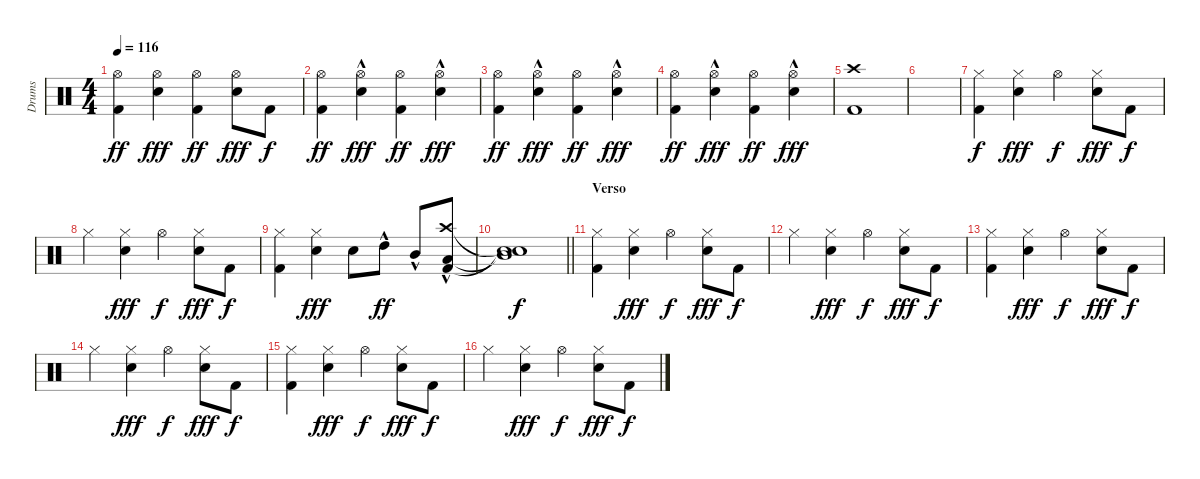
\track ("Drums" "Drums") {instrument percussion}
\staff {score}
\articulation defaults
\ts (4 4)
\tempo 116
\clef neutral
\ks c
("Hi-Hat (open)" "Kick (hit) 2").4{dy ff} ("Hi-Hat (open)" "Snare (hit) 2").4{dy fff} ("Hi-Hat (open)" "Kick (hit) 2").4{dy ff} ("Hi-Hat (open)" "Snare (hit) 2").8{dy fff} "Kick (hit) 2".8{dy f} |
("Hi-Hat (open)" "Kick (hit) 2").4{dy ff} ("Hi-Hat (open)" "Snare (hit) 2"{hac}).4{dy fff} ("Hi-Hat (open)" "Kick (hit) 2").4{dy ff} ("Hi-Hat (open)" "Snare (hit) 2"{hac}).4{dy fff} |
("Hi-Hat (open)" "Kick (hit) 2").4{dy ff} ("Hi-Hat (open)" "Snare (hit) 2"{hac}).4{dy fff} ("Hi-Hat (open)" "Kick (hit) 2").4{dy ff} ("Hi-Hat (open)" "Snare (hit) 2"{hac}).4{dy fff} |
("Hi-Hat (open)" "Kick (hit) 2").4{dy ff} ("Hi-Hat (open)" "Snare (hit) 2"{hac}).4{dy fff} ("Hi-Hat (open)" "Kick (hit) 2").4{dy ff} ("Hi-Hat (open)" "Snare (hit) 2"{hac}).4{dy fff} |
("Crash high (hit)" "Kick (hit) 2").1 |
|
("Hi-Hat (closed)" "Kick (hit) 2").4{dy f} ("Hi-Hat (closed)" "Snare (hit) 2").4{dy fff} "Hi-Hat (open)".4{dy f} ("Hi-Hat (closed)" "Snare (hit) 2").8{dy fff} "Kick (hit) 2".8{dy f} |
"Hi-Hat (closed)".4 ("Hi-Hat (closed)" "Snare (hit) 2").4{dy fff} "Hi-Hat (open)".4{dy f} ("Hi-Hat (closed)" "Snare (hit) 2").8{dy fff} "Kick (hit) 2".8{dy f} |
("Hi-Hat (closed)" "Kick (hit) 2").4 ("Hi-Hat (closed)" "Snare (hit) 2").4{dy fff} "Snare (hit) 2".8 "High Tom (hit)"{hac}.8{dy ff} "Mid Tom (hit)"{hac}.8 ("Crash high (hit)" "Low Tom (hit)" "Kick (hit) 2"{hac}).8 |
\barLineRight lightlight
("Snare (hit)"{t} "Mid Tom (hit)"{t} "Snare (hit)"{t}).1{dy f} |
\section ("" "Verso")
("Hi-Hat (closed)" "Kick (hit) 2").4 ("Hi-Hat (closed)" "Snare (hit) 2").4{dy fff} "Hi-Hat (open)".4{dy f} ("Hi-Hat (closed)" "Snare (hit) 2").8{dy fff} "Kick (hit) 2".8{dy f} |
"Hi-Hat (closed)".4 ("Hi-Hat (closed)" "Snare (hit) 2").4{dy fff} "Hi-Hat (open)".4{dy f} ("Hi-Hat (closed)" "Snare (hit) 2").8{dy fff} "Kick (hit) 2".8{dy f} |
("Hi-Hat (closed)" "Kick (hit) 2").4 ("Hi-Hat (closed)" "Snare (hit) 2").4{dy fff} "Hi-Hat (open)".4{dy f} ("Hi-Hat (closed)" "Snare (hit) 2").8{dy fff} "Kick (hit) 2".8{dy f} |
"Hi-Hat (closed)".4 ("Hi-Hat (closed)" "Snare (hit) 2").4{dy fff} "Hi-Hat (open)".4{dy f} ("Hi-Hat (closed)" "Snare (hit) 2").8{dy fff} "Kick (hit) 2".8{dy f} |
("Hi-Hat (closed)" "Kick (hit) 2").4 ("Hi-Hat (closed)" "Snare (hit) 2").4{dy fff} "Hi-Hat (open)".4{dy f} ("Hi-Hat (closed)" "Snare (hit) 2").8{dy fff} "Kick (hit) 2".8{dy f} |
"Hi-Hat (closed)".4 ("Hi-Hat (closed)" "Snare (hit) 2").4{dy fff} "Hi-Hat (open)".4{dy f} ("Hi-Hat (closed)" "Snare (hit) 2").8{dy fff} "Kick (hit) 2".8{dy f}
